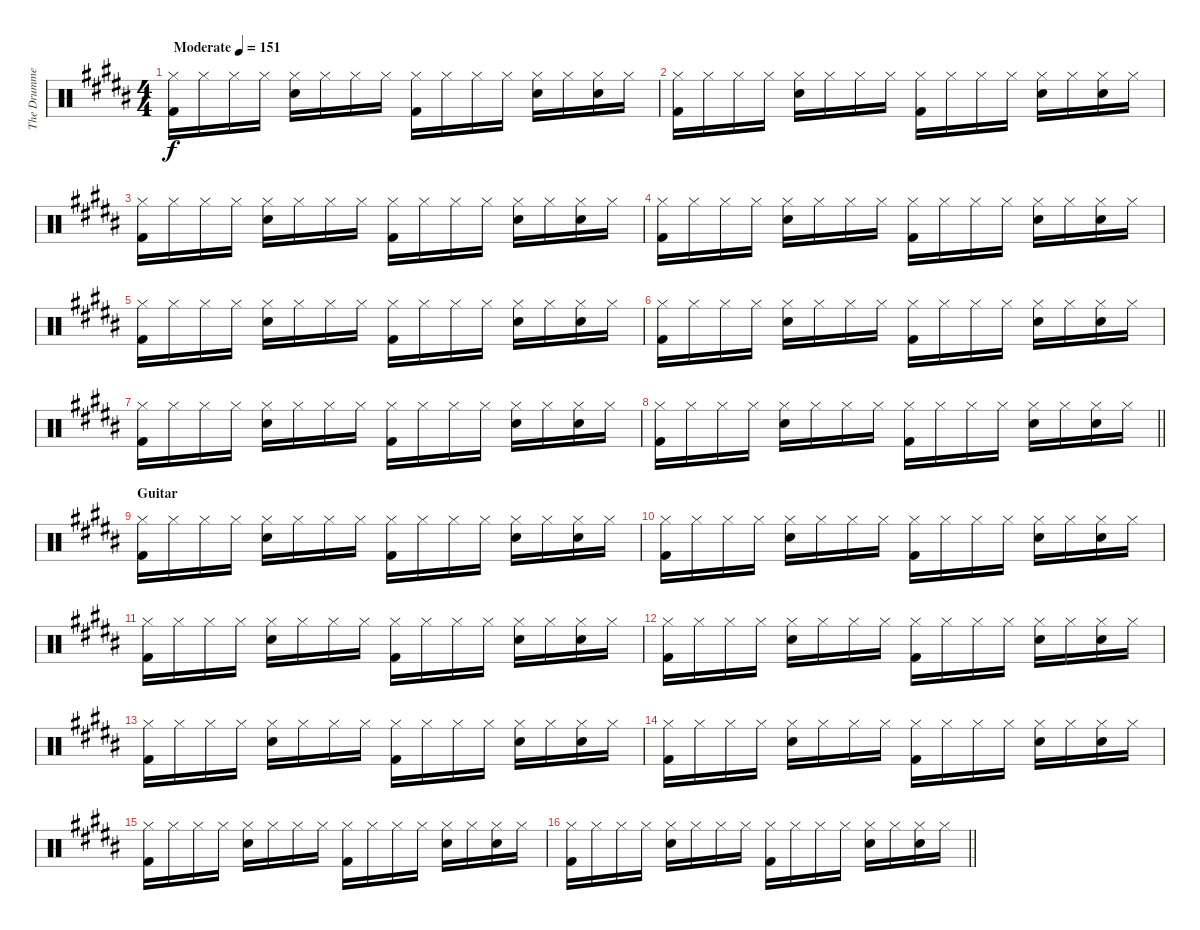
\track ("The Drummer" "The Drumme") {instrument percussion}
\staff {score}
\articulation defaults
\ts (4 4)
\tempo (151 "Moderate")
\clef neutral
\ks b
("Hi-Hat (closed)" "Kick (hit) 2").16{dy f} "Hi-Hat (closed)".16 "Hi-Hat (closed)".16 "Hi-Hat (closed)".16 ("Hi-Hat (closed)" "Snare (hit) 2").16 "Hi-Hat (closed)".16 "Hi-Hat (closed)".16 "Hi-Hat (closed)".16 ("Hi-Hat (closed)" "Kick (hit) 2").16 "Hi-Hat (closed)".16 "Hi-Hat (closed)".16 "Hi-Hat (closed)".16 ("Hi-Hat (closed)" "Snare (hit) 2").16 "Hi-Hat (closed)".16 ("Hi-Hat (closed)" "Snare (hit) 2").16 "Hi-Hat (closed)".16 |
("Hi-Hat (closed)" "Kick (hit) 2").16 "Hi-Hat (closed)".16 "Hi-Hat (closed)".16 "Hi-Hat (closed)".16 ("Hi-Hat (closed)" "Snare (hit) 2").16 "Hi-Hat (closed)".16 "Hi-Hat (closed)".16 "Hi-Hat (closed)".16 ("Hi-Hat (closed)" "Kick (hit) 2").16 "Hi-Hat (closed)".16 "Hi-Hat (closed)".16 "Hi-Hat (closed)".16 ("Hi-Hat (closed)" "Snare (hit) 2").16 "Hi-Hat (closed)".16 ("Hi-Hat (closed)" "Snare (hit) 2").16 "Hi-Hat (closed)".16 |
("Hi-Hat (closed)" "Kick (hit) 2").16 "Hi-Hat (closed)".16 "Hi-Hat (closed)".16 "Hi-Hat (closed)".16 ("Hi-Hat (closed)" "Snare (hit) 2").16 "Hi-Hat (closed)".16 "Hi-Hat (closed)".16 "Hi-Hat (closed)".16 ("Hi-Hat (closed)" "Kick (hit) 2").16 "Hi-Hat (closed)".16 "Hi-Hat (closed)".16 "Hi-Hat (closed)".16 ("Hi-Hat (closed)" "Snare (hit) 2").16 "Hi-Hat (closed)".16 ("Hi-Hat (closed)" "Snare (hit) 2").16 "Hi-Hat (closed)".16 |
("Hi-Hat (closed)" "Kick (hit) 2").16 "Hi-Hat (closed)".16 "Hi-Hat (closed)".16 "Hi-Hat (closed)".16 ("Hi-Hat (closed)" "Snare (hit) 2").16 "Hi-Hat (closed)".16 "Hi-Hat (closed)".16 "Hi-Hat (closed)".16 ("Hi-Hat (closed)" "Kick (hit) 2").16 "Hi-Hat (closed)".16 "Hi-Hat (closed)".16 "Hi-Hat (closed)".16 ("Hi-Hat (closed)" "Snare (hit) 2").16 "Hi-Hat (closed)".16 ("Hi-Hat (closed)" "Snare (hit) 2").16 "Hi-Hat (closed)".16 |
("Hi-Hat (closed)" "Kick (hit) 2").16 "Hi-Hat (closed)".16 "Hi-Hat (closed)".16 "Hi-Hat (closed)".16 ("Hi-Hat (closed)" "Snare (hit) 2").16 "Hi-Hat (closed)".16 "Hi-Hat (closed)".16 "Hi-Hat (closed)".16 ("Hi-Hat (closed)" "Kick (hit) 2").16 "Hi-Hat (closed)".16 "Hi-Hat (closed)".16 "Hi-Hat (closed)".16 ("Hi-Hat (closed)" "Snare (hit) 2").16 "Hi-Hat (closed)".16 ("Hi-Hat (closed)" "Snare (hit) 2").16 "Hi-Hat (closed)".16 |
("Hi-Hat (closed)" "Kick (hit) 2").16 "Hi-Hat (closed)".16 "Hi-Hat (closed)".16 "Hi-Hat (closed)".16 ("Hi-Hat (closed)" "Snare (hit) 2").16 "Hi-Hat (closed)".16 "Hi-Hat (closed)".16 "Hi-Hat (closed)".16 ("Hi-Hat (closed)" "Kick (hit) 2").16 "Hi-Hat (closed)".16 "Hi-Hat (closed)".16 "Hi-Hat (closed)".16 ("Hi-Hat (closed)" "Snare (hit) 2").16 "Hi-Hat (closed)".16 ("Hi-Hat (closed)" "Snare (hit) 2").16 "Hi-Hat (closed)".16 |
("Hi-Hat (closed)" "Kick (hit) 2").16 "Hi-Hat (closed)".16 "Hi-Hat (closed)".16 "Hi-Hat (closed)".16 ("Hi-Hat (closed)" "Snare (hit) 2").16 "Hi-Hat (closed)".16 "Hi-Hat (closed)".16 "Hi-Hat (closed)".16 ("Hi-Hat (closed)" "Kick (hit) 2").16 "Hi-Hat (closed)".16 "Hi-Hat (closed)".16 "Hi-Hat (closed)".16 ("Hi-Hat (closed)" "Snare (hit) 2").16 "Hi-Hat (closed)".16 ("Hi-Hat (closed)" "Snare (hit) 2").16 "Hi-Hat (closed)".16 |
\barLineRight lightlight
("Hi-Hat (closed)" "Kick (hit) 2").16 "Hi-Hat (closed)".16 "Hi-Hat (closed)".16 "Hi-Hat (closed)".16 ("Hi-Hat (closed)" "Snare (hit) 2").16 "Hi-Hat (closed)".16 "Hi-Hat (closed)".16 "Hi-Hat (closed)".16 ("Hi-Hat (closed)" "Kick (hit) 2").16 "Hi-Hat (closed)".16 "Hi-Hat (closed)".16 "Hi-Hat (closed)".16 ("Hi-Hat (closed)" "Snare (hit) 2").16 "Hi-Hat (closed)".16 ("Hi-Hat (closed)" "Snare (hit) 2").16 "Hi-Hat (closed)".16 |
\section ("" "Guitar")
("Hi-Hat (closed)" "Kick (hit) 2").16 "Hi-Hat (closed)".16 "Hi-Hat (closed)".16 "Hi-Hat (closed)".16 ("Hi-Hat (closed)" "Snare (hit) 2").16 "Hi-Hat (closed)".16 "Hi-Hat (closed)".16 "Hi-Hat (closed)".16 ("Hi-Hat (closed)" "Kick (hit) 2").16 "Hi-Hat (closed)".16 "Hi-Hat (closed)".16 "Hi-Hat (closed)".16 ("Hi-Hat (closed)" "Snare (hit) 2").16 "Hi-Hat (closed)".16 ("Hi-Hat (closed)" "Snare (hit) 2").16 "Hi-Hat (closed)".16 |
("Hi-Hat (closed)" "Kick (hit) 2").16 "Hi-Hat (closed)".16 "Hi-Hat (closed)".16 "Hi-Hat (closed)".16 ("Hi-Hat (closed)" "Snare (hit) 2").16 "Hi-Hat (closed)".16 "Hi-Hat (closed)".16 "Hi-Hat (closed)".16 ("Hi-Hat (closed)" "Kick (hit) 2").16 "Hi-Hat (closed)".16 "Hi-Hat (closed)".16 "Hi-Hat (closed)".16 ("Hi-Hat (closed)" "Snare (hit) 2").16 "Hi-Hat (closed)".16 ("Hi-Hat (closed)" "Snare (hit) 2").16 "Hi-Hat (closed)".16 |
("Hi-Hat (closed)" "Kick (hit) 2").16 "Hi-Hat (closed)".16 "Hi-Hat (closed)".16 "Hi-Hat (closed)".16 ("Hi-Hat (closed)" "Snare (hit) 2").16 "Hi-Hat (closed)".16 "Hi-Hat (closed)".16 "Hi-Hat (closed)".16 ("Hi-Hat (closed)" "Kick (hit) 2").16 "Hi-Hat (closed)".16 "Hi-Hat (closed)".16 "Hi-Hat (closed)".16 ("Hi-Hat (closed)" "Snare (hit) 2").16 "Hi-Hat (closed)".16 ("Hi-Hat (closed)" "Snare (hit) 2").16 "Hi-Hat (closed)".16 |
("Hi-Hat (closed)" "Kick (hit) 2").16 "Hi-Hat (closed)".16 "Hi-Hat (closed)".16 "Hi-Hat (closed)".16 ("Hi-Hat (closed)" "Snare (hit) 2").16 "Hi-Hat (closed)".16 "Hi-Hat (closed)".16 "Hi-Hat (closed)".16 ("Hi-Hat (closed)" "Kick (hit) 2").16 "Hi-Hat (closed)".16 "Hi-Hat (closed)".16 "Hi-Hat (closed)".16 ("Hi-Hat (closed)" "Snare (hit) 2").16 "Hi-Hat (closed)".16 ("Hi-Hat (closed)" "Snare (hit) 2").16 "Hi-Hat (closed)".16 |
("Hi-Hat (closed)" "Kick (hit) 2").16 "Hi-Hat (closed)".16 "Hi-Hat (closed)".16 "Hi-Hat (closed)".16 ("Hi-Hat (closed)" "Snare (hit) 2").16 "Hi-Hat (closed)".16 "Hi-Hat (closed)".16 "Hi-Hat (closed)".16 ("Hi-Hat (closed)" "Kick (hit) 2").16 "Hi-Hat (closed)".16 "Hi-Hat (closed)".16 "Hi-Hat (closed)".16 ("Hi-Hat (closed)" "Snare (hit) 2").16 "Hi-Hat (closed)".16 ("Hi-Hat (closed)" "Snare (hit) 2").16 "Hi-Hat (closed)".16 |
("Hi-Hat (closed)" "Kick (hit) 2").16 "Hi-Hat (closed)".16 "Hi-Hat (closed)".16 "Hi-Hat (closed)".16 ("Hi-Hat (closed)" "Snare (hit) 2").16 "Hi-Hat (closed)".16 "Hi-Hat (closed)".16 "Hi-Hat (closed)".16 ("Hi-Hat (closed)" "Kick (hit) 2").16 "Hi-Hat (closed)".16 "Hi-Hat (closed)".16 "Hi-Hat (closed)".16 ("Hi-Hat (closed)" "Snare (hit) 2").16 "Hi-Hat (closed)".16 ("Hi-Hat (closed)" "Snare (hit) 2").16 "Hi-Hat (closed)".16 |
("Hi-Hat (closed)" "Kick (hit) 2").16 "Hi-Hat (closed)".16 "Hi-Hat (closed)".16 "Hi-Hat (closed)".16 ("Hi-Hat (closed)" "Snare (hit) 2").16 "Hi-Hat (closed)".16 "Hi-Hat (closed)".16 "Hi-Hat (closed)".16 ("Hi-Hat (closed)" "Kick (hit) 2").16 "Hi-Hat (closed)".16 "Hi-Hat (closed)".16 "Hi-Hat (closed)".16 ("Hi-Hat (closed)" "Snare (hit) 2").16 "Hi-Hat (closed)".16 ("Hi-Hat (closed)" "Snare (hit) 2").16 "Hi-Hat (closed)".16 |
\barLineRight lightlight
("Hi-Hat (closed)" "Kick (hit) 2").16 "Hi-Hat (closed)".16 "Hi-Hat (closed)".16 "Hi-Hat (closed)".16 ("Hi-Hat (closed)" "Snare (hit) 2").16 "Hi-Hat (closed)".16 "Hi-Hat (closed)".16 "Hi-Hat (closed)".16 ("Hi-Hat (closed)" "Kick (hit) 2").16 "Hi-Hat (closed)".16 "Hi-Hat (closed)".16 "Hi-Hat (closed)".16 ("Hi-Hat (closed)" "Snare (hit) 2").16 "Hi-Hat (closed)".16 ("Hi-Hat (closed)" "Snare (hit) 2").16 "Hi-Hat (closed)".16
